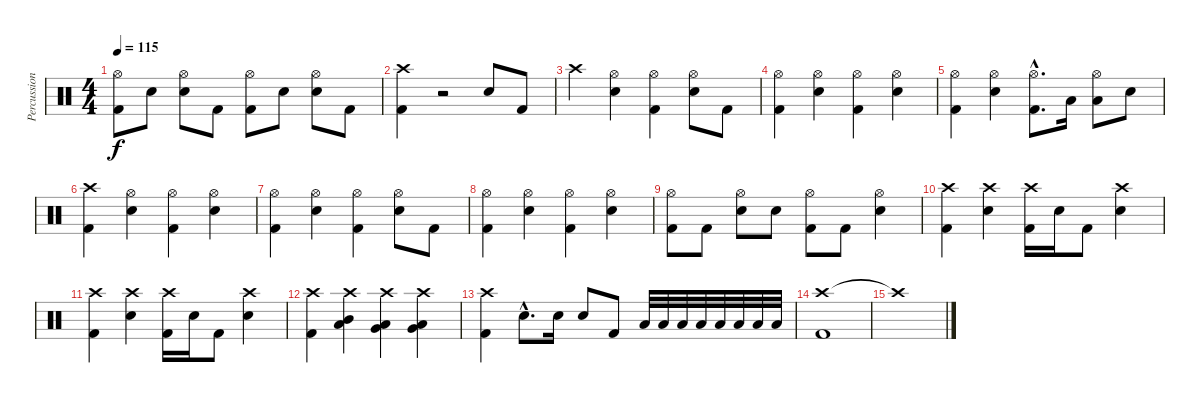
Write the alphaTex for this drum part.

\track ("Percussion" "Percussion") {instrument percussion}
\staff {score}
\articulation defaults
\ts (4 4)
\tempo 115
\clef neutral
\ks c
("Hi-Hat (open)" "Kick (hit) 2").8{dy f} "Snare (hit) 2".8 ("Hi-Hat (open)" "Snare (hit) 2").8 "Kick (hit) 2".8 ("Hi-Hat (open)" "Kick (hit) 2").8 "Snare (hit) 2".8 ("Hi-Hat (open)" "Snare (hit) 2").8 "Kick (hit) 2".8 |
("Crash high (hit)" "Kick (hit) 2").4 r.2 "Snare (hit) 2".8 "Kick (hit) 2".8 |
"Crash high (hit)".4 ("Hi-Hat (open)" "Snare (hit) 2").4 ("Hi-Hat (open)" "Kick (hit) 2").4 ("Hi-Hat (open)" "Snare (hit) 2").8 "Kick (hit) 2".8 |
("Hi-Hat (open)" "Kick (hit) 2").4 ("Hi-Hat (open)" "Snare (hit) 2").4 ("Hi-Hat (open)" "Kick (hit) 2").4 ("Hi-Hat (open)" "Snare (hit) 2").4 |
("Hi-Hat (open)" "Kick (hit) 2").4 ("Hi-Hat (open)" "Snare (hit) 2").4 ("Hi-Hat (open)"{hac} "Kick (hit) 2"{hac}).8{d} "Low Tom (hit)".16 ("Hi-Hat (open)" "Low Tom (hit)").8 "Snare (hit) 2".8 |
("Crash high (hit)" "Kick (hit) 2").4 ("Hi-Hat (open)" "Snare (hit) 2").4 ("Hi-Hat (open)" "Kick (hit) 2").4 ("Hi-Hat (open)" "Snare (hit) 2").4 |
("Hi-Hat (open)" "Kick (hit) 2").4 ("Hi-Hat (open)" "Snare (hit) 2").4 ("Hi-Hat (open)" "Kick (hit) 2").4 ("Hi-Hat (open)" "Snare (hit) 2").8 "Kick (hit) 2".8 |
("Hi-Hat (open)" "Kick (hit) 2").4 ("Hi-Hat (open)" "Snare (hit) 2").4 ("Hi-Hat (open)" "Kick (hit) 2").4 ("Hi-Hat (open)" "Snare (hit) 2").4 |
("Hi-Hat (open)" "Kick (hit) 2").8 "Kick (hit) 2".8 ("Hi-Hat (open)" "Snare (hit) 2").8 "Snare (hit) 2".8 ("Hi-Hat (open)" "Kick (hit) 2").8 "Kick (hit) 2".8 ("Hi-Hat (open)" "Snare (hit) 2").4 |
("Crash high (hit)" "Kick (hit) 2").4 ("Crash high (hit)" "Snare (hit) 2").4 ("Crash high (hit)" "Kick (hit) 2").16 "Snare (hit) 2".16 "Kick (hit) 2".8 ("Crash high (hit)" "Snare (hit) 2").4 |
("Crash high (hit)" "Kick (hit) 2").4 ("Crash high (hit)" "Snare (hit) 2").4 ("Crash high (hit)" "Kick (hit) 2").16 "Snare (hit) 2".16 "Kick (hit) 2".8 ("Crash high (hit)" "Snare (hit) 2").4 |
("Crash high (hit)" "Kick (hit) 2").4 ("Crash high (hit)" "Mid Tom (hit)" "Low Tom (hit)").4 ("Crash high (hit)" "Low Tom (hit)" "Very Low Tom (hit)").4 ("Crash high (hit)" "Very Low Tom (hit)" "Low Floor Tom (hit)").4 |
("Crash high (hit)" "Kick (hit) 2").4 "Snare (hit) 2"{hac}.8{d} "Snare (hit) 2".16 "Snare (hit) 2".8 "Kick (hit) 2".8 "Low Tom (hit)".32 "Low Tom (hit)".32 "Low Tom (hit)".32 "Low Tom (hit)".32 "Low Tom (hit)".32 "Low Tom (hit)".32 "Low Tom (hit)".32 "Low Tom (hit)".32 |
("Crash high (hit)" "Kick (hit) 2").1 |
"Crash high (hit)"{t}.1
